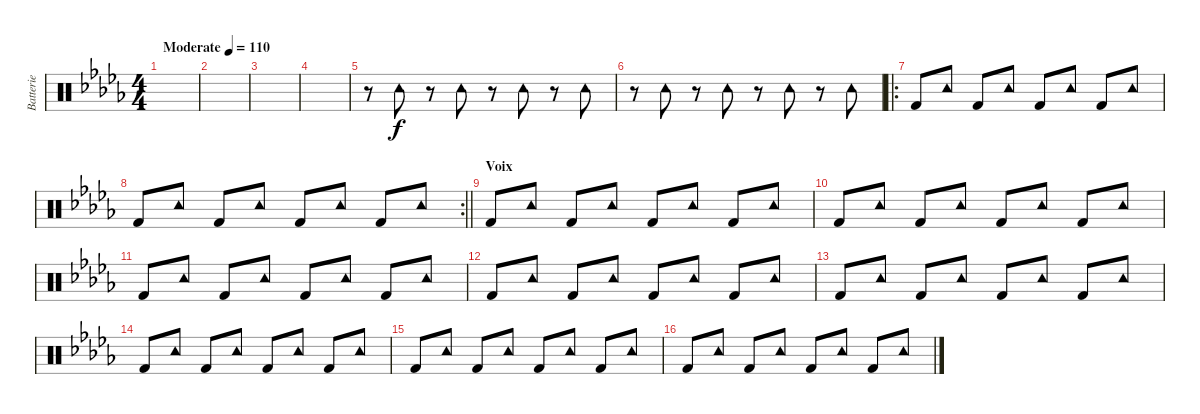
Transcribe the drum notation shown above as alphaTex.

\track ("Batterie" "Batterie") {instrument percussion}
\staff {score}
\articulation defaults
\ts (4 4)
\tempo (110 "Moderate")
\clef neutral
\ks bbminor
|
|
|
|
r.8 "Tambourine (hit)".8 r.8 "Tambourine (hit)".8 r.8 "Tambourine (hit)".8 r.8 "Tambourine (hit)".8 |
r.8 "Tambourine (hit)".8 r.8 "Tambourine (hit)".8 r.8 "Tambourine (hit)".8 r.8 "Tambourine (hit)".8 |
\ro "Kick (hit) 2".8 "Tambourine (hit)".8 "Kick (hit) 2".8 "Tambourine (hit)".8 "Kick (hit) 2".8 "Tambourine (hit)".8 "Kick (hit) 2".8 "Tambourine (hit)".8
|
\rc 2
\barLineRight lightlight "Kick (hit) 2".8 "Tambourine (hit)".8 "Kick (hit) 2".8 "Tambourine (hit)".8 "Kick (hit) 2".8 "Tambourine (hit)".8 "Kick (hit) 2".8 "Tambourine (hit)".8
|
\section ("" "Voix")
"Kick (hit) 2".8 "Tambourine (hit)".8 "Kick (hit) 2".8 "Tambourine (hit)".8 "Kick (hit) 2".8 "Tambourine (hit)".8 "Kick (hit) 2".8 "Tambourine (hit)".8 |
"Kick (hit) 2".8 "Tambourine (hit)".8 "Kick (hit) 2".8 "Tambourine (hit)".8 "Kick (hit) 2".8 "Tambourine (hit)".8 "Kick (hit) 2".8 "Tambourine (hit)".8 |
"Kick (hit) 2".8 "Tambourine (hit)".8 "Kick (hit) 2".8 "Tambourine (hit)".8 "Kick (hit) 2".8 "Tambourine (hit)".8 "Kick (hit) 2".8 "Tambourine (hit)".8 |
"Kick (hit) 2".8 "Tambourine (hit)".8 "Kick (hit) 2".8 "Tambourine (hit)".8 "Kick (hit) 2".8 "Tambourine (hit)".8 "Kick (hit) 2".8 "Tambourine (hit)".8 |
"Kick (hit) 2".8 "Tambourine (hit)".8 "Kick (hit) 2".8 "Tambourine (hit)".8 "Kick (hit) 2".8 "Tambourine (hit)".8 "Kick (hit) 2".8 "Tambourine (hit)".8 |
"Kick (hit) 2".8 "Tambourine (hit)".8 "Kick (hit) 2".8 "Tambourine (hit)".8 "Kick (hit) 2".8 "Tambourine (hit)".8 "Kick (hit) 2".8 "Tambourine (hit)".8 |
"Kick (hit) 2".8 "Tambourine (hit)".8 "Kick (hit) 2".8 "Tambourine (hit)".8 "Kick (hit) 2".8 "Tambourine (hit)".8 "Kick (hit) 2".8 "Tambourine (hit)".8 |
"Kick (hit) 2".8 "Tambourine (hit)".8 "Kick (hit) 2".8 "Tambourine (hit)".8 "Kick (hit) 2".8 "Tambourine (hit)".8 "Kick (hit) 2".8 "Tambourine (hit)".8
